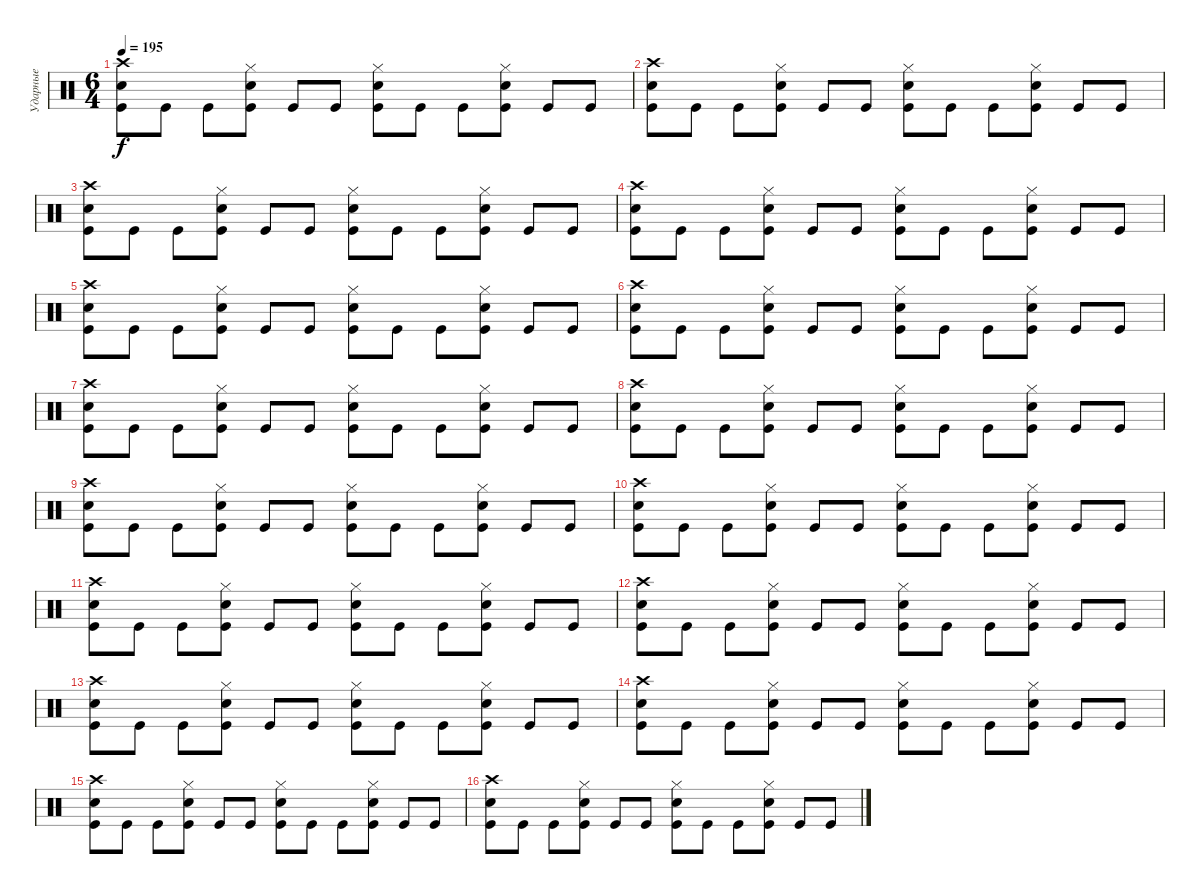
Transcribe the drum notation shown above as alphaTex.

\track ("Ударные" "Ударные") {instrument percussion}
\staff {score}
\articulation defaults
\ts (6 4)
\tempo 195
\clef neutral
\ks c
("Crash high (hit)" "Electric Snare (hit)" "Kick (hit)").8{dy f} "Kick (hit)".8 "Kick (hit)".8 ("Hi-Hat (closed)" "Electric Snare (hit)" "Kick (hit)").8 "Kick (hit)".8 "Kick (hit)".8 ("Hi-Hat (closed)" "Electric Snare (hit)" "Kick (hit)").8 "Kick (hit)".8 "Kick (hit)".8 ("Hi-Hat (closed)" "Electric Snare (hit)" "Kick (hit)").8 "Kick (hit)".8 "Kick (hit)".8 |
("Crash high (hit)" "Electric Snare (hit)" "Kick (hit)").8 "Kick (hit)".8 "Kick (hit)".8 ("Hi-Hat (closed)" "Electric Snare (hit)" "Kick (hit)").8 "Kick (hit)".8 "Kick (hit)".8 ("Hi-Hat (closed)" "Electric Snare (hit)" "Kick (hit)").8 "Kick (hit)".8 "Kick (hit)".8 ("Hi-Hat (closed)" "Electric Snare (hit)" "Kick (hit)").8 "Kick (hit)".8 "Kick (hit)".8 |
("Crash high (hit)" "Electric Snare (hit)" "Kick (hit)").8 "Kick (hit)".8 "Kick (hit)".8 ("Hi-Hat (closed)" "Electric Snare (hit)" "Kick (hit)").8 "Kick (hit)".8 "Kick (hit)".8 ("Hi-Hat (closed)" "Electric Snare (hit)" "Kick (hit)").8 "Kick (hit)".8 "Kick (hit)".8 ("Hi-Hat (closed)" "Electric Snare (hit)" "Kick (hit)").8 "Kick (hit)".8 "Kick (hit)".8 |
("Crash high (hit)" "Electric Snare (hit)" "Kick (hit)").8 "Kick (hit)".8 "Kick (hit)".8 ("Hi-Hat (closed)" "Electric Snare (hit)" "Kick (hit)").8 "Kick (hit)".8 "Kick (hit)".8 ("Hi-Hat (closed)" "Electric Snare (hit)" "Kick (hit)").8 "Kick (hit)".8 "Kick (hit)".8 ("Hi-Hat (closed)" "Electric Snare (hit)" "Kick (hit)").8 "Kick (hit)".8 "Kick (hit)".8 |
("Crash high (hit)" "Electric Snare (hit)" "Kick (hit)").8 "Kick (hit)".8 "Kick (hit)".8 ("Hi-Hat (closed)" "Electric Snare (hit)" "Kick (hit)").8 "Kick (hit)".8 "Kick (hit)".8 ("Hi-Hat (closed)" "Electric Snare (hit)" "Kick (hit)").8 "Kick (hit)".8 "Kick (hit)".8 ("Hi-Hat (closed)" "Electric Snare (hit)" "Kick (hit)").8 "Kick (hit)".8 "Kick (hit)".8 |
("Crash high (hit)" "Electric Snare (hit)" "Kick (hit)").8 "Kick (hit)".8 "Kick (hit)".8 ("Hi-Hat (closed)" "Electric Snare (hit)" "Kick (hit)").8 "Kick (hit)".8 "Kick (hit)".8 ("Hi-Hat (closed)" "Electric Snare (hit)" "Kick (hit)").8 "Kick (hit)".8 "Kick (hit)".8 ("Hi-Hat (closed)" "Electric Snare (hit)" "Kick (hit)").8 "Kick (hit)".8 "Kick (hit)".8 |
("Crash high (hit)" "Electric Snare (hit)" "Kick (hit)").8 "Kick (hit)".8 "Kick (hit)".8 ("Hi-Hat (closed)" "Electric Snare (hit)" "Kick (hit)").8 "Kick (hit)".8 "Kick (hit)".8 ("Hi-Hat (closed)" "Electric Snare (hit)" "Kick (hit)").8 "Kick (hit)".8 "Kick (hit)".8 ("Hi-Hat (closed)" "Electric Snare (hit)" "Kick (hit)").8 "Kick (hit)".8 "Kick (hit)".8 |
("Crash high (hit)" "Electric Snare (hit)" "Kick (hit)").8 "Kick (hit)".8 "Kick (hit)".8 ("Hi-Hat (closed)" "Electric Snare (hit)" "Kick (hit)").8 "Kick (hit)".8 "Kick (hit)".8 ("Hi-Hat (closed)" "Electric Snare (hit)" "Kick (hit)").8 "Kick (hit)".8 "Kick (hit)".8 ("Hi-Hat (closed)" "Electric Snare (hit)" "Kick (hit)").8 "Kick (hit)".8 "Kick (hit)".8 |
("Crash high (hit)" "Electric Snare (hit)" "Kick (hit)").8 "Kick (hit)".8 "Kick (hit)".8 ("Hi-Hat (closed)" "Electric Snare (hit)" "Kick (hit)").8 "Kick (hit)".8 "Kick (hit)".8 ("Hi-Hat (closed)" "Electric Snare (hit)" "Kick (hit)").8 "Kick (hit)".8 "Kick (hit)".8 ("Hi-Hat (closed)" "Electric Snare (hit)" "Kick (hit)").8 "Kick (hit)".8 "Kick (hit)".8 |
("Crash high (hit)" "Electric Snare (hit)" "Kick (hit)").8 "Kick (hit)".8 "Kick (hit)".8 ("Hi-Hat (closed)" "Electric Snare (hit)" "Kick (hit)").8 "Kick (hit)".8 "Kick (hit)".8 ("Hi-Hat (closed)" "Electric Snare (hit)" "Kick (hit)").8 "Kick (hit)".8 "Kick (hit)".8 ("Hi-Hat (closed)" "Electric Snare (hit)" "Kick (hit)").8 "Kick (hit)".8 "Kick (hit)".8 |
("Crash high (hit)" "Electric Snare (hit)" "Kick (hit)").8 "Kick (hit)".8 "Kick (hit)".8 ("Hi-Hat (closed)" "Electric Snare (hit)" "Kick (hit)").8 "Kick (hit)".8 "Kick (hit)".8 ("Hi-Hat (closed)" "Electric Snare (hit)" "Kick (hit)").8 "Kick (hit)".8 "Kick (hit)".8 ("Hi-Hat (closed)" "Electric Snare (hit)" "Kick (hit)").8 "Kick (hit)".8 "Kick (hit)".8 |
("Crash high (hit)" "Electric Snare (hit)" "Kick (hit)").8 "Kick (hit)".8 "Kick (hit)".8 ("Hi-Hat (closed)" "Electric Snare (hit)" "Kick (hit)").8 "Kick (hit)".8 "Kick (hit)".8 ("Hi-Hat (closed)" "Electric Snare (hit)" "Kick (hit)").8 "Kick (hit)".8 "Kick (hit)".8 ("Hi-Hat (closed)" "Electric Snare (hit)" "Kick (hit)").8 "Kick (hit)".8 "Kick (hit)".8 |
("Crash high (hit)" "Electric Snare (hit)" "Kick (hit)").8 "Kick (hit)".8 "Kick (hit)".8 ("Hi-Hat (closed)" "Electric Snare (hit)" "Kick (hit)").8 "Kick (hit)".8 "Kick (hit)".8 ("Hi-Hat (closed)" "Electric Snare (hit)" "Kick (hit)").8 "Kick (hit)".8 "Kick (hit)".8 ("Hi-Hat (closed)" "Electric Snare (hit)" "Kick (hit)").8 "Kick (hit)".8 "Kick (hit)".8 |
("Crash high (hit)" "Electric Snare (hit)" "Kick (hit)").8 "Kick (hit)".8 "Kick (hit)".8 ("Hi-Hat (closed)" "Electric Snare (hit)" "Kick (hit)").8 "Kick (hit)".8 "Kick (hit)".8 ("Hi-Hat (closed)" "Electric Snare (hit)" "Kick (hit)").8 "Kick (hit)".8 "Kick (hit)".8 ("Hi-Hat (closed)" "Electric Snare (hit)" "Kick (hit)").8 "Kick (hit)".8 "Kick (hit)".8 |
("Crash high (hit)" "Electric Snare (hit)" "Kick (hit)").8 "Kick (hit)".8 "Kick (hit)".8 ("Hi-Hat (closed)" "Electric Snare (hit)" "Kick (hit)").8 "Kick (hit)".8 "Kick (hit)".8 ("Hi-Hat (closed)" "Electric Snare (hit)" "Kick (hit)").8 "Kick (hit)".8 "Kick (hit)".8 ("Hi-Hat (closed)" "Electric Snare (hit)" "Kick (hit)").8 "Kick (hit)".8 "Kick (hit)".8 |
("Crash high (hit)" "Electric Snare (hit)" "Kick (hit)").8 "Kick (hit)".8 "Kick (hit)".8 ("Hi-Hat (closed)" "Electric Snare (hit)" "Kick (hit)").8 "Kick (hit)".8 "Kick (hit)".8 ("Hi-Hat (closed)" "Electric Snare (hit)" "Kick (hit)").8 "Kick (hit)".8 "Kick (hit)".8 ("Hi-Hat (closed)" "Electric Snare (hit)" "Kick (hit)").8 "Kick (hit)".8 "Kick (hit)".8
